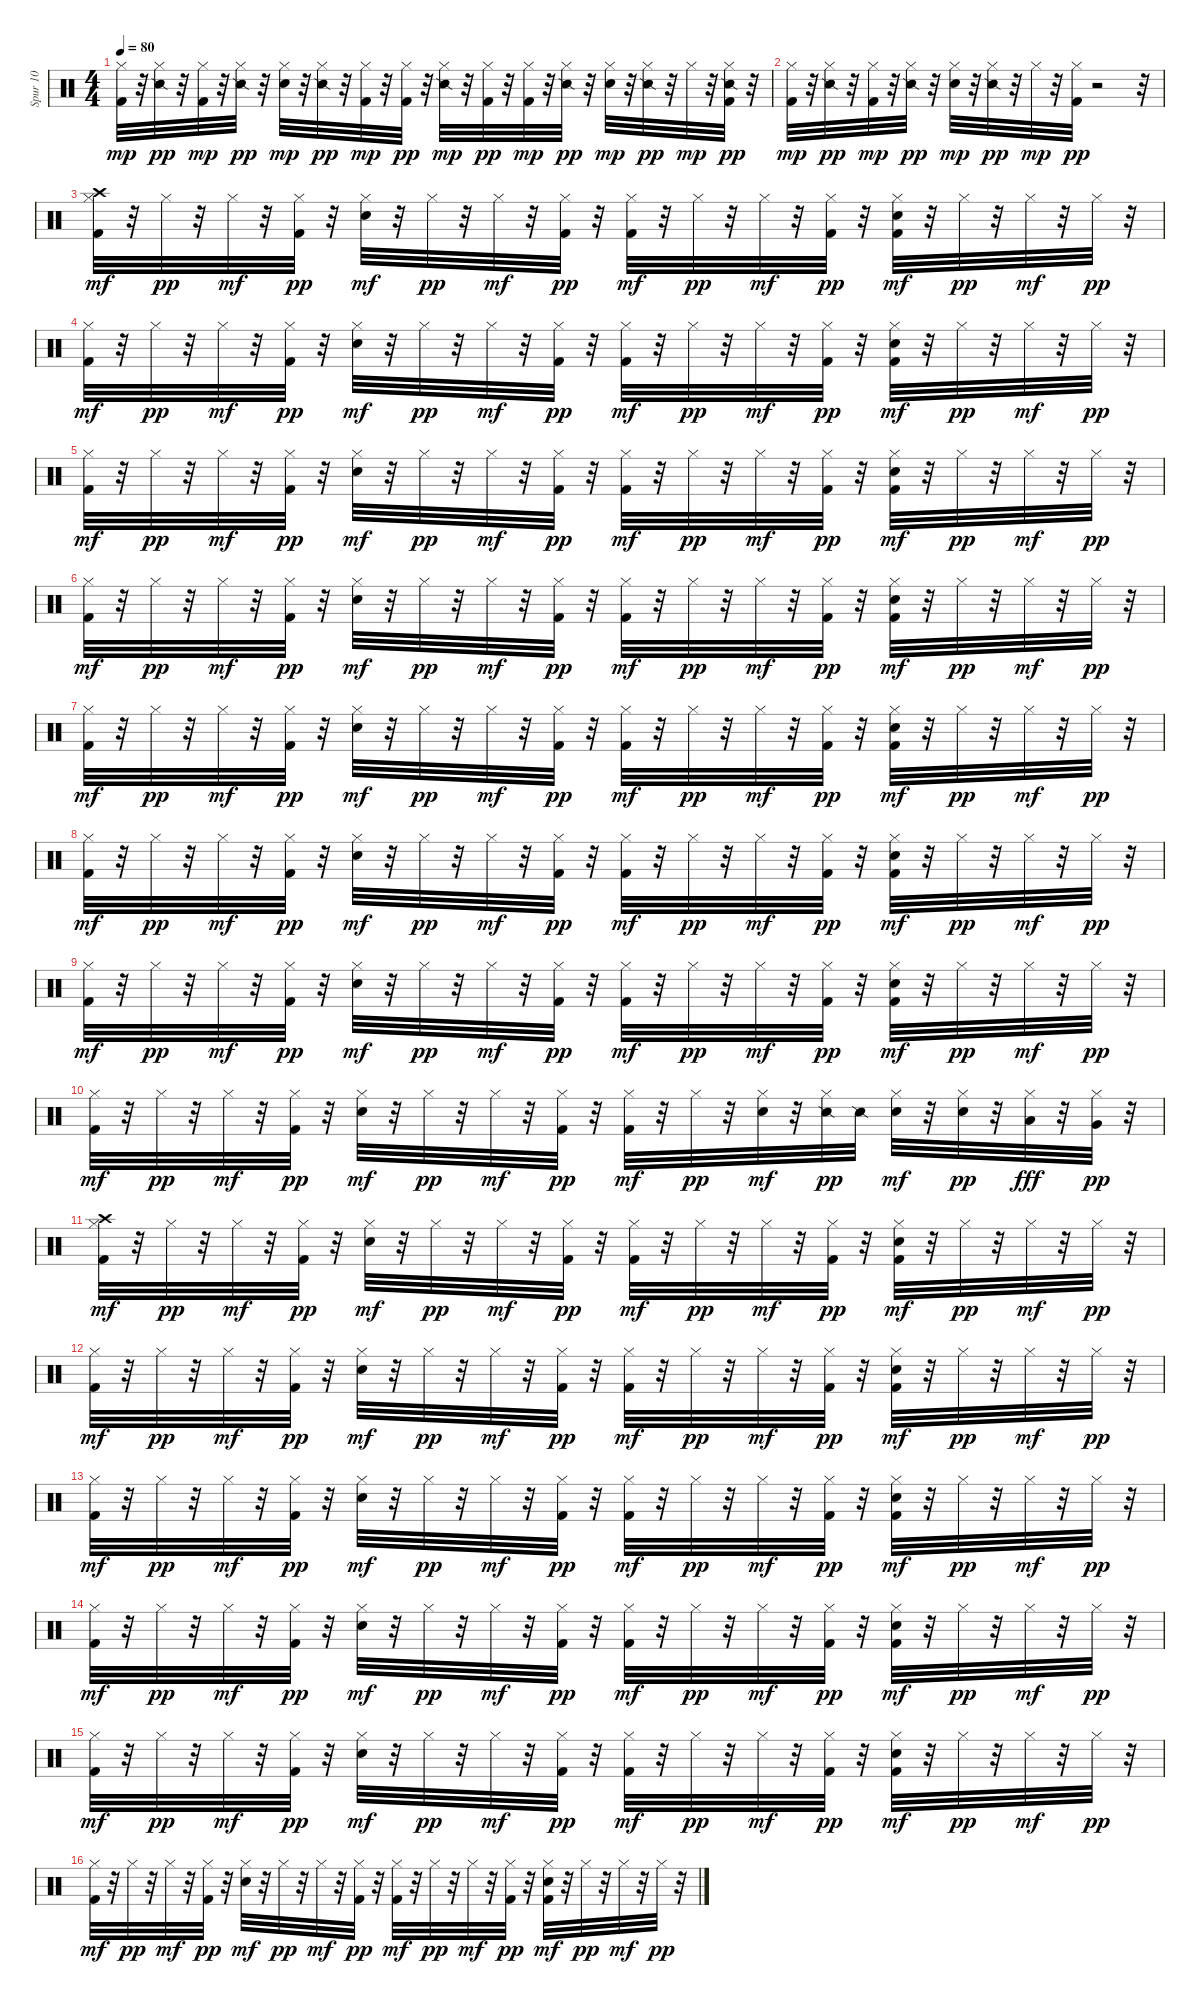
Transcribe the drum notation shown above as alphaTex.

\track ("Spur 10" "Spur 10") {instrument percussion}
\staff {score}
\articulation defaults
\ts (4 4)
\tempo 80
\clef neutral
\ks c
("Kick (hit) 2" "Hi-Hat (closed)").32{dy mp} r.32 ("Snare (side stick) 2" "Hi-Hat (closed)").32{dy pp} r.32 ("Kick (hit) 2" "Hi-Hat (closed)").32{dy mp} r.32 ("Snare (side stick) 2" "Hi-Hat (closed)").32{dy pp} r.32 ("Electric Snare (hit)" "Hi-Hat (closed)").32{dy mp} r.32 ("Snare (side stick) 2" "Hi-Hat (closed)").32{dy pp} r.32 ("Kick (hit) 2" "Hi-Hat (closed)").32{dy mp} r.32 ("Kick (hit) 2" "Hi-Hat (closed)").32{dy pp} r.32 ("Snare (side stick) 2" "Hi-Hat (closed)").32{dy mp} r.32 ("Kick (hit) 2" "Hi-Hat (closed)").32{dy pp} r.32 ("Kick (hit) 2" "Hi-Hat (closed)").32{dy mp} r.32 ("Snare (side stick) 2" "Hi-Hat (closed)").32{dy pp} r.32 ("Electric Snare (hit)" "Hi-Hat (closed)").32{dy mp} r.32 ("Snare (side stick) 2" "Hi-Hat (closed)").32{dy pp} r.32 "Hi-Hat (closed)".32{dy mp} r.32 ("Snare (side stick) 2" "Kick (hit) 2" "Hi-Hat (closed)").32{dy pp} r.32 |
("Kick (hit) 2" "Hi-Hat (closed)").32{dy mp} r.32 ("Snare (side stick) 2" "Hi-Hat (closed)").32{dy pp} r.32 ("Kick (hit) 2" "Hi-Hat (closed)").32{dy mp} r.32 ("Snare (side stick) 2" "Hi-Hat (closed)").32{dy pp} r.32 ("Electric Snare (hit)" "Hi-Hat (closed)").32{dy mp} r.32 ("Snare (side stick) 2" "Hi-Hat (closed)").32{dy pp} r.32 "Hi-Hat (closed)".32{dy mp} r.32 ("Kick (hit) 2" "Hi-Hat (closed)").32{dy pp} r.2 r.32 |
("Crash high (hit)" "Kick (hit) 2" "Hi-Hat (closed)").32{dy mf} r.32 "Hi-Hat (closed)".32{dy pp} r.32 "Hi-Hat (closed)".32{dy mf} r.32 ("Kick (hit) 2" "Hi-Hat (closed)").32{dy pp} r.32 ("Electric Snare (hit)" "Hi-Hat (closed)").32{dy mf} r.32 "Hi-Hat (closed)".32{dy pp} r.32 "Hi-Hat (closed)".32{dy mf} r.32 ("Kick (hit) 2" "Hi-Hat (closed)").32{dy pp} r.32 ("Kick (hit) 2" "Hi-Hat (closed)").32{dy mf} r.32 "Hi-Hat (closed)".32{dy pp} r.32 "Hi-Hat (closed)".32{dy mf} r.32 ("Kick (hit) 2" "Hi-Hat (closed)").32{dy pp} r.32 ("Kick (hit) 2" "Electric Snare (hit)" "Hi-Hat (closed)").32{dy mf} r.32 "Hi-Hat (closed)".32{dy pp} r.32 "Hi-Hat (closed)".32{dy mf} r.32 "Hi-Hat (closed)".32{dy pp} r.32 |
("Kick (hit) 2" "Hi-Hat (closed)").32{dy mf} r.32 "Hi-Hat (closed)".32{dy pp} r.32 "Hi-Hat (closed)".32{dy mf} r.32 ("Kick (hit) 2" "Hi-Hat (closed)").32{dy pp} r.32 ("Electric Snare (hit)" "Hi-Hat (closed)").32{dy mf} r.32 "Hi-Hat (closed)".32{dy pp} r.32 "Hi-Hat (closed)".32{dy mf} r.32 ("Kick (hit) 2" "Hi-Hat (closed)").32{dy pp} r.32 ("Kick (hit) 2" "Hi-Hat (closed)").32{dy mf} r.32 "Hi-Hat (closed)".32{dy pp} r.32 "Hi-Hat (closed)".32{dy mf} r.32 ("Kick (hit) 2" "Hi-Hat (closed)").32{dy pp} r.32 ("Kick (hit) 2" "Electric Snare (hit)" "Hi-Hat (closed)").32{dy mf} r.32 "Hi-Hat (closed)".32{dy pp} r.32 "Hi-Hat (closed)".32{dy mf} r.32 "Hi-Hat (closed)".32{dy pp} r.32 |
("Kick (hit) 2" "Hi-Hat (closed)").32{dy mf} r.32 "Hi-Hat (closed)".32{dy pp} r.32 "Hi-Hat (closed)".32{dy mf} r.32 ("Kick (hit) 2" "Hi-Hat (closed)").32{dy pp} r.32 ("Electric Snare (hit)" "Hi-Hat (closed)").32{dy mf} r.32 "Hi-Hat (closed)".32{dy pp} r.32 "Hi-Hat (closed)".32{dy mf} r.32 ("Kick (hit) 2" "Hi-Hat (closed)").32{dy pp} r.32 ("Kick (hit) 2" "Hi-Hat (closed)").32{dy mf} r.32 "Hi-Hat (closed)".32{dy pp} r.32 "Hi-Hat (closed)".32{dy mf} r.32 ("Kick (hit) 2" "Hi-Hat (closed)").32{dy pp} r.32 ("Kick (hit) 2" "Electric Snare (hit)" "Hi-Hat (closed)").32{dy mf} r.32 "Hi-Hat (closed)".32{dy pp} r.32 "Hi-Hat (closed)".32{dy mf} r.32 "Hi-Hat (closed)".32{dy pp} r.32 |
("Kick (hit) 2" "Hi-Hat (closed)").32{dy mf} r.32 "Hi-Hat (closed)".32{dy pp} r.32 "Hi-Hat (closed)".32{dy mf} r.32 ("Kick (hit) 2" "Hi-Hat (closed)").32{dy pp} r.32 ("Electric Snare (hit)" "Hi-Hat (closed)").32{dy mf} r.32 "Hi-Hat (closed)".32{dy pp} r.32 "Hi-Hat (closed)".32{dy mf} r.32 ("Kick (hit) 2" "Hi-Hat (closed)").32{dy pp} r.32 ("Kick (hit) 2" "Hi-Hat (closed)").32{dy mf} r.32 "Hi-Hat (closed)".32{dy pp} r.32 "Hi-Hat (closed)".32{dy mf} r.32 ("Kick (hit) 2" "Hi-Hat (closed)").32{dy pp} r.32 ("Kick (hit) 2" "Electric Snare (hit)" "Hi-Hat (closed)").32{dy mf} r.32 "Hi-Hat (closed)".32{dy pp} r.32 "Hi-Hat (closed)".32{dy mf} r.32 "Hi-Hat (closed)".32{dy pp} r.32 |
("Kick (hit) 2" "Hi-Hat (closed)").32{dy mf} r.32 "Hi-Hat (closed)".32{dy pp} r.32 "Hi-Hat (closed)".32{dy mf} r.32 ("Kick (hit) 2" "Hi-Hat (closed)").32{dy pp} r.32 ("Electric Snare (hit)" "Hi-Hat (closed)").32{dy mf} r.32 "Hi-Hat (closed)".32{dy pp} r.32 "Hi-Hat (closed)".32{dy mf} r.32 ("Kick (hit) 2" "Hi-Hat (closed)").32{dy pp} r.32 ("Kick (hit) 2" "Hi-Hat (closed)").32{dy mf} r.32 "Hi-Hat (closed)".32{dy pp} r.32 "Hi-Hat (closed)".32{dy mf} r.32 ("Kick (hit) 2" "Hi-Hat (closed)").32{dy pp} r.32 ("Kick (hit) 2" "Electric Snare (hit)" "Hi-Hat (closed)").32{dy mf} r.32 "Hi-Hat (closed)".32{dy pp} r.32 "Hi-Hat (closed)".32{dy mf} r.32 "Hi-Hat (closed)".32{dy pp} r.32 |
("Kick (hit) 2" "Hi-Hat (closed)").32{dy mf} r.32 "Hi-Hat (closed)".32{dy pp} r.32 "Hi-Hat (closed)".32{dy mf} r.32 ("Kick (hit) 2" "Hi-Hat (closed)").32{dy pp} r.32 ("Electric Snare (hit)" "Hi-Hat (closed)").32{dy mf} r.32 "Hi-Hat (closed)".32{dy pp} r.32 "Hi-Hat (closed)".32{dy mf} r.32 ("Kick (hit) 2" "Hi-Hat (closed)").32{dy pp} r.32 ("Kick (hit) 2" "Hi-Hat (closed)").32{dy mf} r.32 "Hi-Hat (closed)".32{dy pp} r.32 "Hi-Hat (closed)".32{dy mf} r.32 ("Kick (hit) 2" "Hi-Hat (closed)").32{dy pp} r.32 ("Kick (hit) 2" "Electric Snare (hit)" "Hi-Hat (closed)").32{dy mf} r.32 "Hi-Hat (closed)".32{dy pp} r.32 "Hi-Hat (closed)".32{dy mf} r.32 "Hi-Hat (closed)".32{dy pp} r.32 |
("Kick (hit) 2" "Hi-Hat (closed)").32{dy mf} r.32 "Hi-Hat (closed)".32{dy pp} r.32 "Hi-Hat (closed)".32{dy mf} r.32 ("Kick (hit) 2" "Hi-Hat (closed)").32{dy pp} r.32 ("Electric Snare (hit)" "Hi-Hat (closed)").32{dy mf} r.32 "Hi-Hat (closed)".32{dy pp} r.32 "Hi-Hat (closed)".32{dy mf} r.32 ("Kick (hit) 2" "Hi-Hat (closed)").32{dy pp} r.32 ("Kick (hit) 2" "Hi-Hat (closed)").32{dy mf} r.32 "Hi-Hat (closed)".32{dy pp} r.32 "Hi-Hat (closed)".32{dy mf} r.32 ("Kick (hit) 2" "Hi-Hat (closed)").32{dy pp} r.32 ("Kick (hit) 2" "Electric Snare (hit)" "Hi-Hat (closed)").32{dy mf} r.32 "Hi-Hat (closed)".32{dy pp} r.32 "Hi-Hat (closed)".32{dy mf} r.32 "Hi-Hat (closed)".32{dy pp} r.32 |
("Kick (hit) 2" "Hi-Hat (closed)").32{dy mf} r.32 "Hi-Hat (closed)".32{dy pp} r.32 "Hi-Hat (closed)".32{dy mf} r.32 ("Kick (hit) 2" "Hi-Hat (closed)").32{dy pp} r.32 ("Electric Snare (hit)" "Hi-Hat (closed)").32{dy mf} r.32 "Hi-Hat (closed)".32{dy pp} r.32 "Hi-Hat (closed)".32{dy mf} r.32 ("Kick (hit) 2" "Hi-Hat (closed)").32{dy pp} r.32 ("Kick (hit) 2" "Hi-Hat (closed)").32{dy mf} r.32 "Hi-Hat (closed)".32{dy pp} r.32 ("Electric Snare (hit)" "Hi-Hat (closed)").32{dy mf} r.32 ("Snare (side stick) 2" "Hi-Hat (closed)").32{dy pp} "Snare (side stick) 2".32 ("Electric Snare (hit)" "Hi-Hat (closed)").32{dy mf} r.32 ("Electric Snare (hit)" "Hi-Hat (closed)").32{dy pp} r.32 ("Hi-Hat (closed)" "Low Tom (hit)").32{dy fff} r.32 ("Hi-Hat (closed)" "Very Low Tom (hit)").32{dy pp} r.32 |
("Crash high (hit)" "Kick (hit) 2" "Hi-Hat (closed)").32{dy mf} r.32 "Hi-Hat (closed)".32{dy pp} r.32 "Hi-Hat (closed)".32{dy mf} r.32 ("Kick (hit) 2" "Hi-Hat (closed)").32{dy pp} r.32 ("Electric Snare (hit)" "Hi-Hat (closed)").32{dy mf} r.32 "Hi-Hat (closed)".32{dy pp} r.32 "Hi-Hat (closed)".32{dy mf} r.32 ("Kick (hit) 2" "Hi-Hat (closed)").32{dy pp} r.32 ("Kick (hit) 2" "Hi-Hat (closed)").32{dy mf} r.32 "Hi-Hat (closed)".32{dy pp} r.32 "Hi-Hat (closed)".32{dy mf} r.32 ("Kick (hit) 2" "Hi-Hat (closed)").32{dy pp} r.32 ("Kick (hit) 2" "Electric Snare (hit)" "Hi-Hat (closed)").32{dy mf} r.32 "Hi-Hat (closed)".32{dy pp} r.32 "Hi-Hat (closed)".32{dy mf} r.32 "Hi-Hat (closed)".32{dy pp} r.32 |
("Kick (hit) 2" "Hi-Hat (closed)").32{dy mf} r.32 "Hi-Hat (closed)".32{dy pp} r.32 "Hi-Hat (closed)".32{dy mf} r.32 ("Kick (hit) 2" "Hi-Hat (closed)").32{dy pp} r.32 ("Electric Snare (hit)" "Hi-Hat (closed)").32{dy mf} r.32 "Hi-Hat (closed)".32{dy pp} r.32 "Hi-Hat (closed)".32{dy mf} r.32 ("Kick (hit) 2" "Hi-Hat (closed)").32{dy pp} r.32 ("Kick (hit) 2" "Hi-Hat (closed)").32{dy mf} r.32 "Hi-Hat (closed)".32{dy pp} r.32 "Hi-Hat (closed)".32{dy mf} r.32 ("Kick (hit) 2" "Hi-Hat (closed)").32{dy pp} r.32 ("Kick (hit) 2" "Electric Snare (hit)" "Hi-Hat (closed)").32{dy mf} r.32 "Hi-Hat (closed)".32{dy pp} r.32 "Hi-Hat (closed)".32{dy mf} r.32 "Hi-Hat (closed)".32{dy pp} r.32 |
("Kick (hit) 2" "Hi-Hat (closed)").32{dy mf} r.32 "Hi-Hat (closed)".32{dy pp} r.32 "Hi-Hat (closed)".32{dy mf} r.32 ("Kick (hit) 2" "Hi-Hat (closed)").32{dy pp} r.32 ("Electric Snare (hit)" "Hi-Hat (closed)").32{dy mf} r.32 "Hi-Hat (closed)".32{dy pp} r.32 "Hi-Hat (closed)".32{dy mf} r.32 ("Kick (hit) 2" "Hi-Hat (closed)").32{dy pp} r.32 ("Kick (hit) 2" "Hi-Hat (closed)").32{dy mf} r.32 "Hi-Hat (closed)".32{dy pp} r.32 "Hi-Hat (closed)".32{dy mf} r.32 ("Kick (hit) 2" "Hi-Hat (closed)").32{dy pp} r.32 ("Kick (hit) 2" "Electric Snare (hit)" "Hi-Hat (closed)").32{dy mf} r.32 "Hi-Hat (closed)".32{dy pp} r.32 "Hi-Hat (closed)".32{dy mf} r.32 "Hi-Hat (closed)".32{dy pp} r.32 |
("Kick (hit) 2" "Hi-Hat (closed)").32{dy mf} r.32 "Hi-Hat (closed)".32{dy pp} r.32 "Hi-Hat (closed)".32{dy mf} r.32 ("Kick (hit) 2" "Hi-Hat (closed)").32{dy pp} r.32 ("Electric Snare (hit)" "Hi-Hat (closed)").32{dy mf} r.32 "Hi-Hat (closed)".32{dy pp} r.32 "Hi-Hat (closed)".32{dy mf} r.32 ("Kick (hit) 2" "Hi-Hat (closed)").32{dy pp} r.32 ("Kick (hit) 2" "Hi-Hat (closed)").32{dy mf} r.32 "Hi-Hat (closed)".32{dy pp} r.32 "Hi-Hat (closed)".32{dy mf} r.32 ("Kick (hit) 2" "Hi-Hat (closed)").32{dy pp} r.32 ("Kick (hit) 2" "Electric Snare (hit)" "Hi-Hat (closed)").32{dy mf} r.32 "Hi-Hat (closed)".32{dy pp} r.32 "Hi-Hat (closed)".32{dy mf} r.32 "Hi-Hat (closed)".32{dy pp} r.32 |
("Kick (hit) 2" "Hi-Hat (closed)").32{dy mf} r.32 "Hi-Hat (closed)".32{dy pp} r.32 "Hi-Hat (closed)".32{dy mf} r.32 ("Kick (hit) 2" "Hi-Hat (closed)").32{dy pp} r.32 ("Electric Snare (hit)" "Hi-Hat (closed)").32{dy mf} r.32 "Hi-Hat (closed)".32{dy pp} r.32 "Hi-Hat (closed)".32{dy mf} r.32 ("Kick (hit) 2" "Hi-Hat (closed)").32{dy pp} r.32 ("Kick (hit) 2" "Hi-Hat (closed)").32{dy mf} r.32 "Hi-Hat (closed)".32{dy pp} r.32 "Hi-Hat (closed)".32{dy mf} r.32 ("Kick (hit) 2" "Hi-Hat (closed)").32{dy pp} r.32 ("Kick (hit) 2" "Electric Snare (hit)" "Hi-Hat (closed)").32{dy mf} r.32 "Hi-Hat (closed)".32{dy pp} r.32 "Hi-Hat (closed)".32{dy mf} r.32 "Hi-Hat (closed)".32{dy pp} r.32 |
("Kick (hit) 2" "Hi-Hat (closed)").32{dy mf} r.32 "Hi-Hat (closed)".32{dy pp} r.32 "Hi-Hat (closed)".32{dy mf} r.32 ("Kick (hit) 2" "Hi-Hat (closed)").32{dy pp} r.32 ("Electric Snare (hit)" "Hi-Hat (closed)").32{dy mf} r.32 "Hi-Hat (closed)".32{dy pp} r.32 "Hi-Hat (closed)".32{dy mf} r.32 ("Kick (hit) 2" "Hi-Hat (closed)").32{dy pp} r.32 ("Kick (hit) 2" "Hi-Hat (closed)").32{dy mf} r.32 "Hi-Hat (closed)".32{dy pp} r.32 "Hi-Hat (closed)".32{dy mf} r.32 ("Kick (hit) 2" "Hi-Hat (closed)").32{dy pp} r.32 ("Kick (hit) 2" "Electric Snare (hit)" "Hi-Hat (closed)").32{dy mf} r.32 "Hi-Hat (closed)".32{dy pp} r.32 "Hi-Hat (closed)".32{dy mf} r.32 "Hi-Hat (closed)".32{dy pp} r.32
